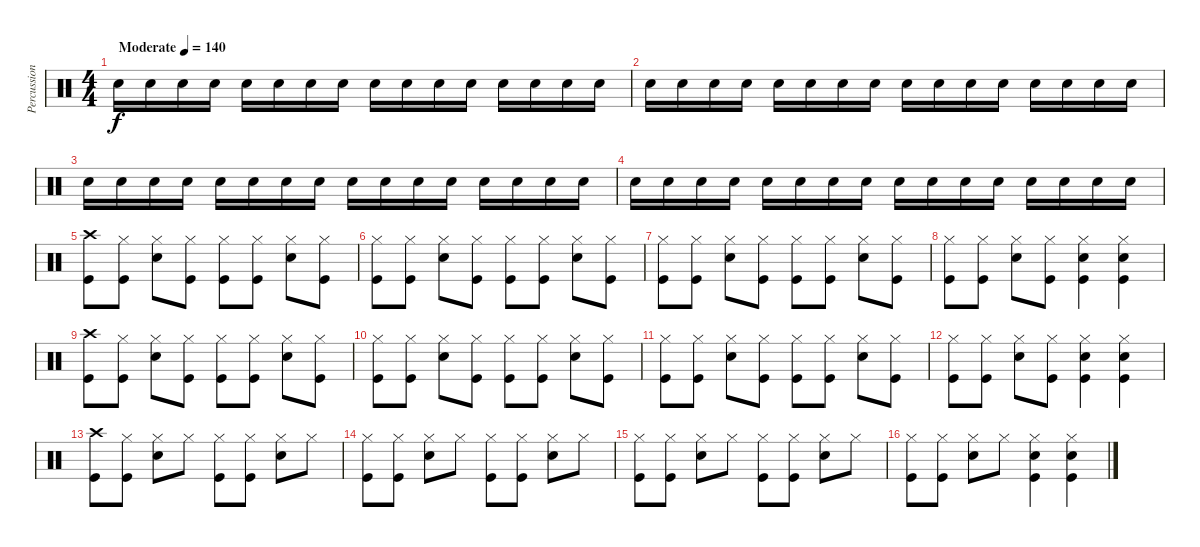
\track ("Percussioni" "Percussion") {instrument percussion}
\staff {score}
\articulation defaults
\ts (4 4)
\tempo (140 "Moderate")
\clef neutral
\ks c "Snare (hit) 2".16{dy f volume 4} "Snare (hit) 2".16 "Snare (hit) 2".16 "Snare (hit) 2".16 "Snare (hit) 2".16 "Snare (hit) 2".16 "Snare (hit) 2".16 "Snare (hit) 2".16 "Snare (hit) 2".16 "Snare (hit) 2".16 "Snare (hit) 2".16 "Snare (hit) 2".16 "Snare (hit) 2".16 "Snare (hit) 2".16 "Snare (hit) 2".16 "Snare (hit) 2".16
|
"Snare (hit) 2".16 "Snare (hit) 2".16 "Snare (hit) 2".16 "Snare (hit) 2".16 "Snare (hit) 2".16 "Snare (hit) 2".16 "Snare (hit) 2".16 "Snare (hit) 2".16 "Snare (hit) 2".16{volume 6} "Snare (hit) 2".16 "Snare (hit) 2".16 "Snare (hit) 2".16 "Snare (hit) 2".16 "Snare (hit) 2".16 "Snare (hit) 2".16 "Snare (hit) 2".16 |
"Snare (hit) 2".16{volume 8} "Snare (hit) 2".16 "Snare (hit) 2".16 "Snare (hit) 2".16 "Snare (hit) 2".16 "Snare (hit) 2".16 "Snare (hit) 2".16 "Snare (hit) 2".16 "Snare (hit) 2".16 "Snare (hit) 2".16 "Snare (hit) 2".16 "Snare (hit) 2".16 "Snare (hit) 2".16 "Snare (hit) 2".16 "Snare (hit) 2".16 "Snare (hit) 2".16 |
"Snare (hit) 2".16{volume 10} "Snare (hit) 2".16 "Snare (hit) 2".16 "Snare (hit) 2".16 "Snare (hit) 2".16 "Snare (hit) 2".16 "Snare (hit) 2".16 "Snare (hit) 2".16 "Snare (hit) 2".16 "Snare (hit) 2".16 "Snare (hit) 2".16 "Snare (hit) 2".16 "Snare (hit) 2".16 "Snare (hit) 2".16 "Snare (hit) 2".16 "Snare (hit) 2".16 |
("Crash high (hit)" "Kick (hit)").8 ("Hi-Hat (closed)" "Kick (hit)").8 ("Hi-Hat (closed)" "Snare (hit) 2").8 ("Hi-Hat (closed)" "Kick (hit)").8 ("Hi-Hat (closed)" "Kick (hit)").8 ("Hi-Hat (closed)" "Kick (hit)").8 ("Hi-Hat (closed)" "Snare (hit) 2").8 ("Hi-Hat (closed)" "Kick (hit)").8 |
("Hi-Hat (closed)" "Kick (hit)").8 ("Hi-Hat (closed)" "Kick (hit)").8 ("Hi-Hat (closed)" "Snare (hit) 2").8 ("Hi-Hat (closed)" "Kick (hit)").8 ("Hi-Hat (closed)" "Kick (hit)").8 ("Hi-Hat (closed)" "Kick (hit)").8 ("Hi-Hat (closed)" "Snare (hit) 2").8 ("Hi-Hat (closed)" "Kick (hit)").8 |
("Hi-Hat (closed)" "Kick (hit)").8 ("Hi-Hat (closed)" "Kick (hit)").8 ("Hi-Hat (closed)" "Snare (hit) 2").8 ("Hi-Hat (closed)" "Kick (hit)").8 ("Hi-Hat (closed)" "Kick (hit)").8 ("Hi-Hat (closed)" "Kick (hit)").8 ("Hi-Hat (closed)" "Snare (hit) 2").8 ("Hi-Hat (closed)" "Kick (hit)").8 |
("Hi-Hat (closed)" "Kick (hit)").8 ("Hi-Hat (closed)" "Kick (hit)").8 ("Hi-Hat (closed)" "Snare (hit) 2").8 ("Hi-Hat (closed)" "Kick (hit)").8 ("Hi-Hat (closed)" "Snare (hit) 2" "Kick (hit)").4 ("Hi-Hat (closed)" "Snare (hit) 2" "Kick (hit)").4 |
("Crash high (hit)" "Kick (hit)").8 ("Hi-Hat (closed)" "Kick (hit)").8 ("Hi-Hat (closed)" "Snare (hit) 2").8 ("Hi-Hat (closed)" "Kick (hit)").8 ("Hi-Hat (closed)" "Kick (hit)").8 ("Hi-Hat (closed)" "Kick (hit)").8 ("Hi-Hat (closed)" "Snare (hit) 2").8 ("Hi-Hat (closed)" "Kick (hit)").8 |
("Hi-Hat (closed)" "Kick (hit)").8 ("Hi-Hat (closed)" "Kick (hit)").8 ("Hi-Hat (closed)" "Snare (hit) 2").8 ("Hi-Hat (closed)" "Kick (hit)").8 ("Hi-Hat (closed)" "Kick (hit)").8 ("Hi-Hat (closed)" "Kick (hit)").8 ("Hi-Hat (closed)" "Snare (hit) 2").8 ("Hi-Hat (closed)" "Kick (hit)").8 |
("Hi-Hat (closed)" "Kick (hit)").8 ("Hi-Hat (closed)" "Kick (hit)").8 ("Hi-Hat (closed)" "Snare (hit) 2").8 ("Hi-Hat (closed)" "Kick (hit)").8 ("Hi-Hat (closed)" "Kick (hit)").8 ("Hi-Hat (closed)" "Kick (hit)").8 ("Hi-Hat (closed)" "Snare (hit) 2").8 ("Hi-Hat (closed)" "Kick (hit)").8 |
("Hi-Hat (closed)" "Kick (hit)").8 ("Hi-Hat (closed)" "Kick (hit)").8 ("Hi-Hat (closed)" "Snare (hit) 2").8 ("Hi-Hat (closed)" "Kick (hit)").8 ("Hi-Hat (closed)" "Snare (hit) 2" "Kick (hit)").4 ("Hi-Hat (closed)" "Snare (hit) 2" "Kick (hit)").4 |
("Crash high (hit)" "Kick (hit)").8 ("Hi-Hat (closed)" "Kick (hit)").8 ("Hi-Hat (closed)" "Snare (hit) 2").8 "Hi-Hat (closed)".8 ("Hi-Hat (closed)" "Kick (hit)").8 ("Hi-Hat (closed)" "Kick (hit)").8 ("Hi-Hat (closed)" "Snare (hit) 2").8 "Hi-Hat (closed)".8 |
("Hi-Hat (closed)" "Kick (hit)").8 ("Hi-Hat (closed)" "Kick (hit)").8 ("Hi-Hat (closed)" "Snare (hit) 2").8 "Hi-Hat (closed)".8 ("Hi-Hat (closed)" "Kick (hit)").8 ("Hi-Hat (closed)" "Kick (hit)").8 ("Hi-Hat (closed)" "Snare (hit) 2").8 "Hi-Hat (closed)".8 |
("Hi-Hat (closed)" "Kick (hit)").8 ("Hi-Hat (closed)" "Kick (hit)").8 ("Hi-Hat (closed)" "Snare (hit) 2").8 "Hi-Hat (closed)".8 ("Hi-Hat (closed)" "Kick (hit)").8 ("Hi-Hat (closed)" "Kick (hit)").8 ("Hi-Hat (closed)" "Snare (hit) 2").8 "Hi-Hat (closed)".8 |
("Hi-Hat (closed)" "Kick (hit)").8 ("Hi-Hat (closed)" "Kick (hit)").8 ("Hi-Hat (closed)" "Snare (hit) 2").8 "Hi-Hat (closed)".8 ("Hi-Hat (closed)" "Snare (hit) 2" "Kick (hit)").4 ("Hi-Hat (closed)" "Snare (hit) 2" "Kick (hit)").4
